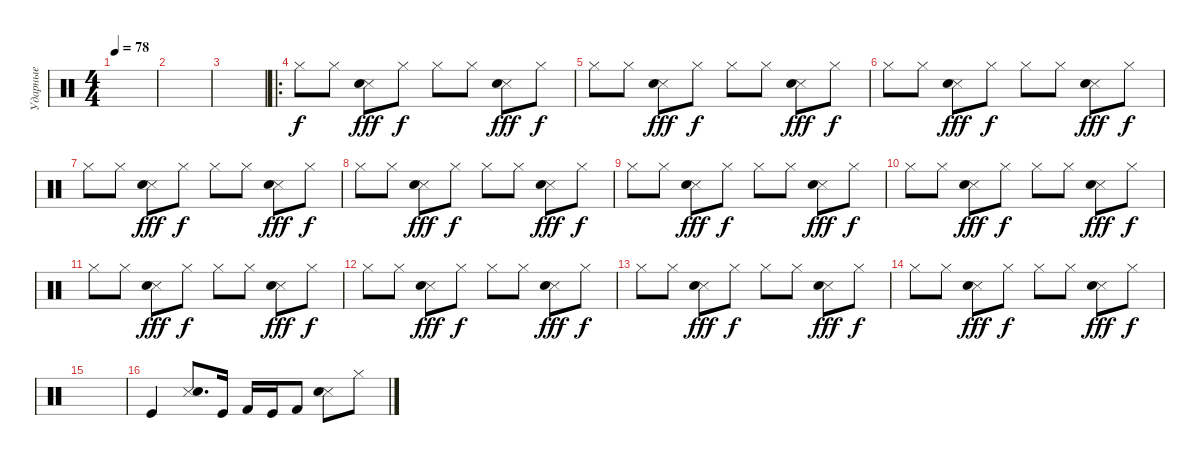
\track ("Ударные" "Ударные") {instrument percussion}
\staff {score}
\articulation defaults
\ts (4 4)
\tempo 78
\clef neutral
\ks c
|
|
|
\ro "Hi-Hat (closed)".8 "Hi-Hat (closed)".8
("Snare (side stick) 3" "Electric Snare (hit)").8{dy fff} "Hi-Hat (closed)".8{dy f} "Hi-Hat (closed)".8 "Hi-Hat (closed)".8 ("Snare (side stick) 3" "Electric Snare (hit)").8{dy fff} "Hi-Hat (closed)".8{dy f} |
"Hi-Hat (closed)".8 "Hi-Hat (closed)".8 ("Snare (side stick) 3" "Electric Snare (hit)").8{dy fff} "Hi-Hat (closed)".8{dy f} "Hi-Hat (closed)".8 "Hi-Hat (closed)".8 ("Snare (side stick) 3" "Electric Snare (hit)").8{dy fff} "Hi-Hat (closed)".8{dy f} |
"Hi-Hat (closed)".8 "Hi-Hat (closed)".8 ("Snare (side stick) 3" "Electric Snare (hit)").8{dy fff} "Hi-Hat (closed)".8{dy f} "Hi-Hat (closed)".8 "Hi-Hat (closed)".8 ("Snare (side stick) 3" "Electric Snare (hit)").8{dy fff} "Hi-Hat (closed)".8{dy f} |
"Hi-Hat (closed)".8 "Hi-Hat (closed)".8 ("Snare (side stick) 3" "Electric Snare (hit)").8{dy fff} "Hi-Hat (closed)".8{dy f} "Hi-Hat (closed)".8 "Hi-Hat (closed)".8 ("Snare (side stick) 3" "Electric Snare (hit)").8{dy fff} "Hi-Hat (closed)".8{dy f} |
"Hi-Hat (closed)".8 "Hi-Hat (closed)".8 ("Snare (side stick) 3" "Electric Snare (hit)").8{dy fff} "Hi-Hat (closed)".8{dy f} "Hi-Hat (closed)".8 "Hi-Hat (closed)".8 ("Snare (side stick) 3" "Electric Snare (hit)").8{dy fff} "Hi-Hat (closed)".8{dy f} |
"Hi-Hat (closed)".8 "Hi-Hat (closed)".8 ("Snare (side stick) 3" "Electric Snare (hit)").8{dy fff} "Hi-Hat (closed)".8{dy f} "Hi-Hat (closed)".8 "Hi-Hat (closed)".8 ("Snare (side stick) 3" "Electric Snare (hit)").8{dy fff} "Hi-Hat (closed)".8{dy f} |
"Hi-Hat (closed)".8 "Hi-Hat (closed)".8 ("Snare (side stick) 3" "Electric Snare (hit)").8{dy fff} "Hi-Hat (closed)".8{dy f} "Hi-Hat (closed)".8 "Hi-Hat (closed)".8 ("Snare (side stick) 3" "Electric Snare (hit)").8{dy fff} "Hi-Hat (closed)".8{dy f} |
"Hi-Hat (closed)".8 "Hi-Hat (closed)".8 ("Snare (side stick) 3" "Electric Snare (hit)").8{dy fff} "Hi-Hat (closed)".8{dy f} "Hi-Hat (closed)".8 "Hi-Hat (closed)".8 ("Snare (side stick) 3" "Electric Snare (hit)").8{dy fff} "Hi-Hat (closed)".8{dy f} |
"Hi-Hat (closed)".8 "Hi-Hat (closed)".8 ("Snare (side stick) 3" "Electric Snare (hit)").8{dy fff} "Hi-Hat (closed)".8{dy f} "Hi-Hat (closed)".8 "Hi-Hat (closed)".8 ("Snare (side stick) 3" "Electric Snare (hit)").8{dy fff} "Hi-Hat (closed)".8{dy f} |
"Hi-Hat (closed)".8 "Hi-Hat (closed)".8 ("Snare (side stick) 3" "Electric Snare (hit)").8{dy fff} "Hi-Hat (closed)".8{dy f} "Hi-Hat (closed)".8 "Hi-Hat (closed)".8 ("Snare (side stick) 3" "Electric Snare (hit)").8{dy fff} "Hi-Hat (closed)".8{dy f} |
"Hi-Hat (closed)".8 "Hi-Hat (closed)".8 ("Snare (side stick) 3" "Electric Snare (hit)").8{dy fff} "Hi-Hat (closed)".8{dy f} "Hi-Hat (closed)".8 "Hi-Hat (closed)".8 ("Snare (side stick) 3" "Electric Snare (hit)").8{dy fff} "Hi-Hat (closed)".8{dy f} |
|
"Kick (hit)".4 ("Snare (side stick) 3" "Electric Snare (hit)").8{d} "Kick (hit)".16 "Kick (hit) 2".16 "Kick (hit)".16 "Kick (hit) 2".8 ("Snare (side stick) 3" "Electric Snare (hit)").8 "Hi-Hat (closed)".8
